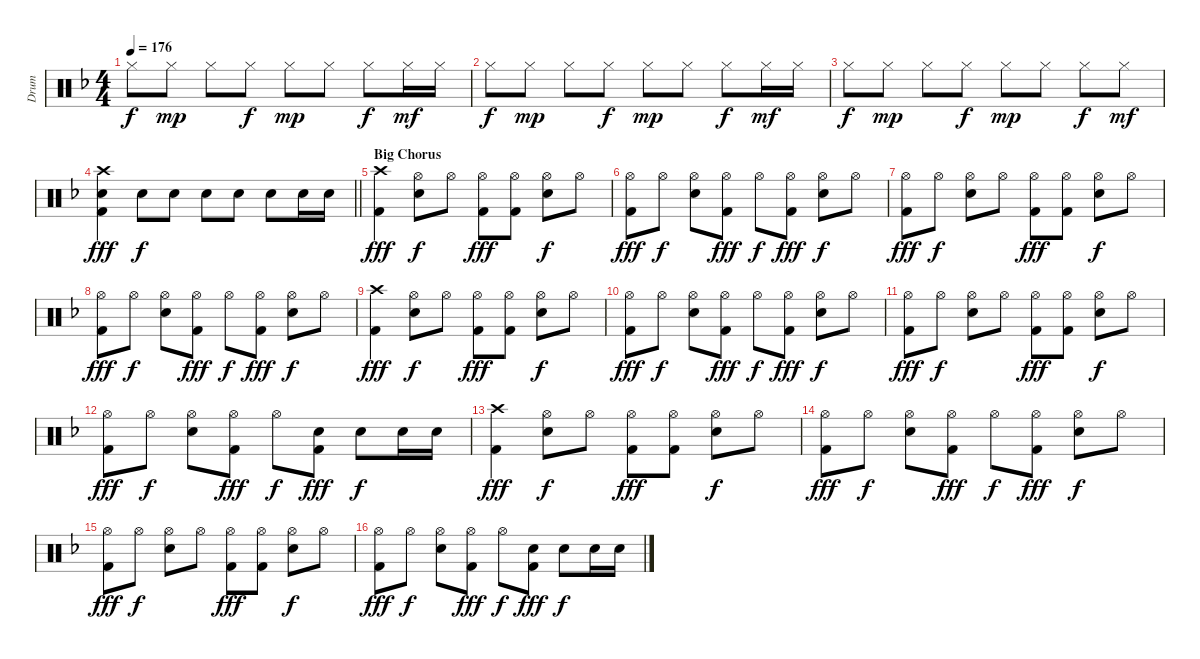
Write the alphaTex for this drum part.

\track ("Drum" "Drum") {instrument percussion}
\staff {score}
\articulation defaults
\ts (4 4)
\tempo 176
\clef neutral
\ks f "Hi-Hat (closed)".8{dy f} "Hi-Hat (closed)".8{dy mp} "Hi-Hat (closed)".8 "Hi-Hat (closed)".8{dy f} "Hi-Hat (closed)".8{dy mp} "Hi-Hat (closed)".8 "Hi-Hat (closed)".8{dy f} "Hi-Hat (closed)".16{dy mf} "Hi-Hat (closed)".16
|
"Hi-Hat (closed)".8{dy f} "Hi-Hat (closed)".8{dy mp} "Hi-Hat (closed)".8 "Hi-Hat (closed)".8{dy f} "Hi-Hat (closed)".8{dy mp} "Hi-Hat (closed)".8 "Hi-Hat (closed)".8{dy f} "Hi-Hat (closed)".16{dy mf} "Hi-Hat (closed)".16 |
"Hi-Hat (closed)".8{dy f} "Hi-Hat (closed)".8{dy mp} "Hi-Hat (closed)".8 "Hi-Hat (closed)".8{dy f} "Hi-Hat (closed)".8{dy mp} "Hi-Hat (closed)".8 "Hi-Hat (closed)".8{dy f} "Hi-Hat (closed)".8{dy mf} |
\barLineRight lightlight
("Crash high (hit)" "Snare (hit) 2" "Kick (hit) 2").4{dy fff} "Snare (hit) 2".8{dy f} "Snare (hit) 2".8 "Snare (hit) 2".8 "Snare (hit) 2".8 "Snare (hit) 2".8 "Snare (hit) 2".16 "Snare (hit) 2".16 |
\section ("" "Big Chorus")
("Crash high (hit)" "Kick (hit) 2").4{dy fff} ("Hi-Hat (open)" "Snare (hit) 2").8{dy f} "Hi-Hat (open)".8 ("Hi-Hat (open)" "Kick (hit) 2").8{dy fff} ("Hi-Hat (open)" "Kick (hit) 2").8 ("Hi-Hat (open)" "Snare (hit) 2").8{dy f} "Hi-Hat (open)".8 |
("Hi-Hat (open)" "Kick (hit) 2").8{dy fff} "Hi-Hat (open)".8{dy f} ("Hi-Hat (open)" "Snare (hit) 2").8 ("Hi-Hat (open)" "Kick (hit) 2").8{dy fff} "Hi-Hat (open)".8{dy f} ("Hi-Hat (open)" "Kick (hit) 2").8{dy fff} ("Hi-Hat (open)" "Snare (hit) 2").8{dy f} "Hi-Hat (open)".8 |
("Hi-Hat (open)" "Kick (hit) 2").8{dy fff} "Hi-Hat (open)".8{dy f} ("Hi-Hat (open)" "Snare (hit) 2").8 "Hi-Hat (open)".8 ("Hi-Hat (open)" "Kick (hit) 2").8{dy fff} ("Hi-Hat (open)" "Kick (hit) 2").8 ("Hi-Hat (open)" "Snare (hit) 2").8{dy f} "Hi-Hat (open)".8 |
("Hi-Hat (open)" "Kick (hit) 2").8{dy fff} "Hi-Hat (open)".8{dy f} ("Hi-Hat (open)" "Snare (hit) 2").8 ("Hi-Hat (open)" "Kick (hit) 2").8{dy fff} "Hi-Hat (open)".8{dy f} ("Hi-Hat (open)" "Kick (hit) 2").8{dy fff} ("Hi-Hat (open)" "Snare (hit) 2").8{dy f} "Hi-Hat (open)".8 |
("Crash high (hit)" "Kick (hit) 2").4{dy fff} ("Hi-Hat (open)" "Snare (hit) 2").8{dy f} "Hi-Hat (open)".8 ("Hi-Hat (open)" "Kick (hit) 2").8{dy fff} ("Hi-Hat (open)" "Kick (hit) 2").8 ("Hi-Hat (open)" "Snare (hit) 2").8{dy f} "Hi-Hat (open)".8 |
("Hi-Hat (open)" "Kick (hit) 2").8{dy fff} "Hi-Hat (open)".8{dy f} ("Hi-Hat (open)" "Snare (hit) 2").8 ("Hi-Hat (open)" "Kick (hit) 2").8{dy fff} "Hi-Hat (open)".8{dy f} ("Hi-Hat (open)" "Kick (hit) 2").8{dy fff} ("Hi-Hat (open)" "Snare (hit) 2").8{dy f} "Hi-Hat (open)".8 |
("Hi-Hat (open)" "Kick (hit) 2").8{dy fff} "Hi-Hat (open)".8{dy f} ("Hi-Hat (open)" "Snare (hit) 2").8 "Hi-Hat (open)".8 ("Hi-Hat (open)" "Kick (hit) 2").8{dy fff} ("Hi-Hat (open)" "Kick (hit) 2").8 ("Hi-Hat (open)" "Snare (hit) 2").8{dy f} "Hi-Hat (open)".8 |
("Hi-Hat (open)" "Kick (hit) 2").8{dy fff} "Hi-Hat (open)".8{dy f} ("Hi-Hat (open)" "Snare (hit) 2").8 ("Hi-Hat (open)" "Kick (hit) 2").8{dy fff} "Hi-Hat (open)".8{dy f} ("Snare (hit) 2" "Kick (hit) 2").8{dy fff} "Snare (hit) 2".8{dy f} "Snare (hit) 2".16 "Snare (hit) 2".16 |
("Crash high (hit)" "Kick (hit) 2").4{dy fff} ("Hi-Hat (open)" "Snare (hit) 2").8{dy f} "Hi-Hat (open)".8 ("Hi-Hat (open)" "Kick (hit) 2").8{dy fff} ("Hi-Hat (open)" "Kick (hit) 2").8 ("Hi-Hat (open)" "Snare (hit) 2").8{dy f} "Hi-Hat (open)".8 |
("Hi-Hat (open)" "Kick (hit) 2").8{dy fff} "Hi-Hat (open)".8{dy f} ("Hi-Hat (open)" "Snare (hit) 2").8 ("Hi-Hat (open)" "Kick (hit) 2").8{dy fff} "Hi-Hat (open)".8{dy f} ("Hi-Hat (open)" "Kick (hit) 2").8{dy fff} ("Hi-Hat (open)" "Snare (hit) 2").8{dy f} "Hi-Hat (open)".8 |
("Hi-Hat (open)" "Kick (hit) 2").8{dy fff} "Hi-Hat (open)".8{dy f} ("Hi-Hat (open)" "Snare (hit) 2").8 "Hi-Hat (open)".8 ("Hi-Hat (open)" "Kick (hit) 2").8{dy fff} ("Hi-Hat (open)" "Kick (hit) 2").8 ("Hi-Hat (open)" "Snare (hit) 2").8{dy f} "Hi-Hat (open)".8 |
("Hi-Hat (open)" "Kick (hit) 2").8{dy fff} "Hi-Hat (open)".8{dy f} ("Hi-Hat (open)" "Snare (hit) 2").8 ("Hi-Hat (open)" "Kick (hit) 2").8{dy fff} "Hi-Hat (open)".8{dy f} ("Snare (hit) 2" "Kick (hit) 2").8{dy fff} "Snare (hit) 2".8{dy f} "Snare (hit) 2".16 "Snare (hit) 2".16
